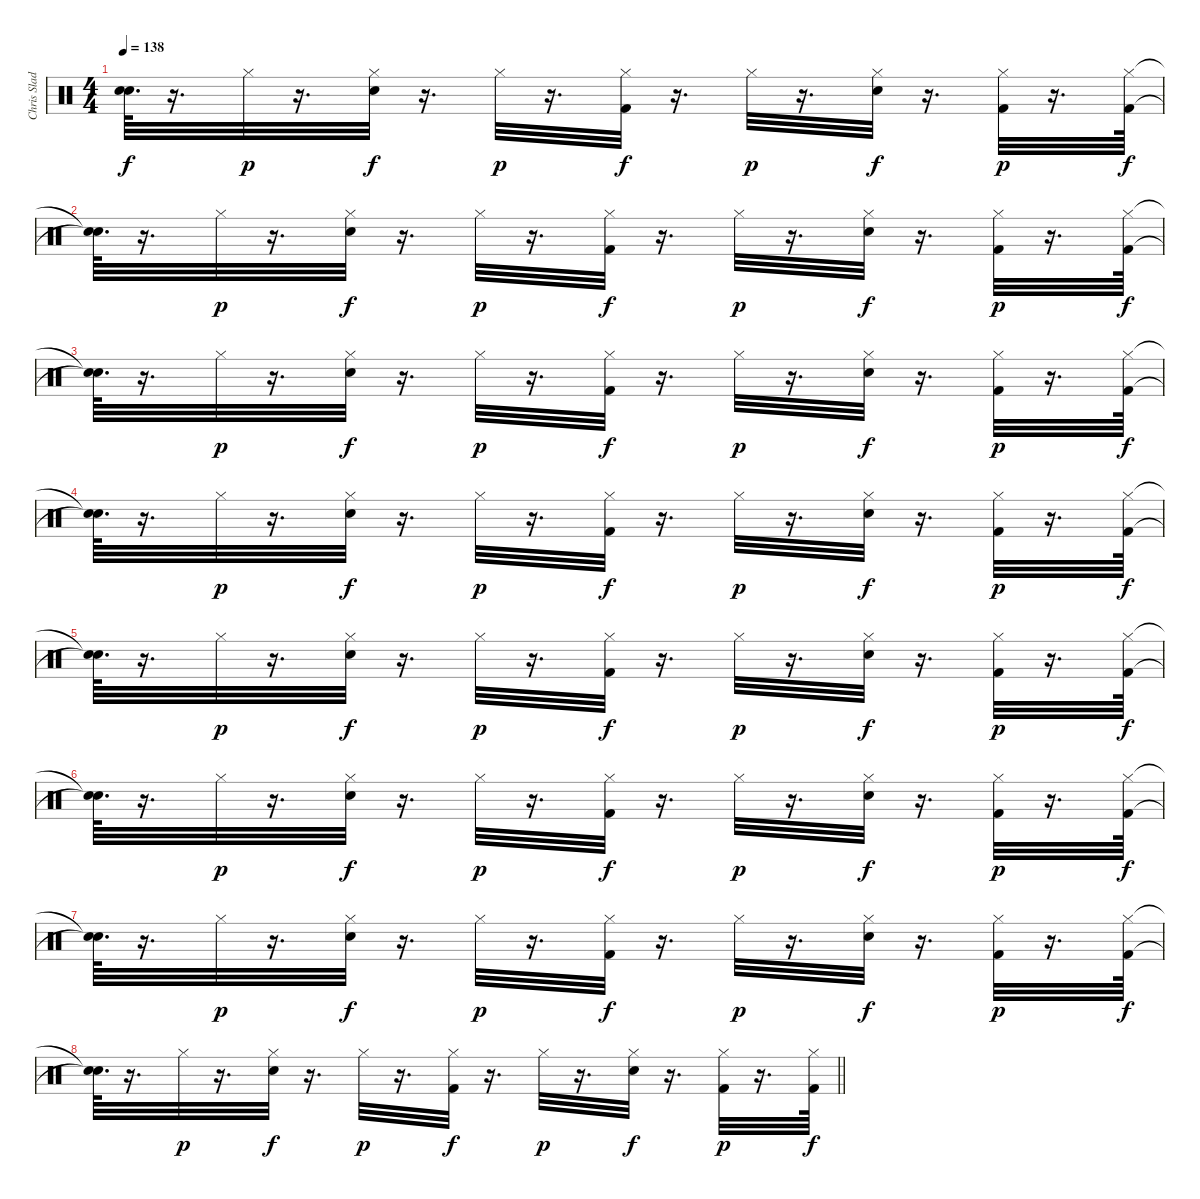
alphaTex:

\track ("Chris Slade" "Chris Slad") {instrument percussion}
\staff {score}
\articulation defaults
\ts (4 4)
\tempo 138
\clef neutral
\ks c
("Snare (hit)"{t} "Snare (hit)"{t}).64{d dy f} r.16{d} "Hi-Hat (closed)".32{dy p} r.16{d} ("Hi-Hat (closed)" "Electric Snare (hit)").32{dy f} r.16{d} "Hi-Hat (closed)".32{dy p} r.16{d} ("Hi-Hat (closed)" "Kick (hit) 2").32{dy f} r.16{d} "Hi-Hat (closed)".32{dy p} r.16{d} ("Hi-Hat (closed)" "Electric Snare (hit)").32{dy f} r.16{d} ("Hi-Hat (closed)" "Kick (hit) 2").32{dy p} r.16{d} ("Hi-Hat (closed)" "Kick (hit) 2").64{dy f} |
("Snare (hit)"{t} "Snare (hit)"{t}).64{d} r.16{d} "Hi-Hat (closed)".32{dy p} r.16{d} ("Hi-Hat (closed)" "Electric Snare (hit)").32{dy f} r.16{d} "Hi-Hat (closed)".32{dy p} r.16{d} ("Hi-Hat (closed)" "Kick (hit) 2").32{dy f} r.16{d} "Hi-Hat (closed)".32{dy p} r.16{d} ("Hi-Hat (closed)" "Electric Snare (hit)").32{dy f} r.16{d} ("Hi-Hat (closed)" "Kick (hit) 2").32{dy p} r.16{d} ("Hi-Hat (closed)" "Kick (hit) 2").64{dy f} |
("Snare (hit)"{t} "Snare (hit)"{t}).64{d} r.16{d} "Hi-Hat (closed)".32{dy p} r.16{d} ("Hi-Hat (closed)" "Electric Snare (hit)").32{dy f} r.16{d} "Hi-Hat (closed)".32{dy p} r.16{d} ("Hi-Hat (closed)" "Kick (hit) 2").32{dy f} r.16{d} "Hi-Hat (closed)".32{dy p} r.16{d} ("Hi-Hat (closed)" "Electric Snare (hit)").32{dy f} r.16{d} ("Hi-Hat (closed)" "Kick (hit) 2").32{dy p} r.16{d} ("Hi-Hat (closed)" "Kick (hit) 2").64{dy f} |
("Snare (hit)"{t} "Snare (hit)"{t}).64{d} r.16{d} "Hi-Hat (closed)".32{dy p} r.16{d} ("Hi-Hat (closed)" "Electric Snare (hit)").32{dy f} r.16{d} "Hi-Hat (closed)".32{dy p} r.16{d} ("Hi-Hat (closed)" "Kick (hit) 2").32{dy f} r.16{d} "Hi-Hat (closed)".32{dy p} r.16{d} ("Hi-Hat (closed)" "Electric Snare (hit)").32{dy f} r.16{d} ("Hi-Hat (closed)" "Kick (hit) 2").32{dy p} r.16{d} ("Hi-Hat (closed)" "Kick (hit) 2").64{dy f} |
("Snare (hit)"{t} "Snare (hit)"{t}).64{d} r.16{d} "Hi-Hat (closed)".32{dy p} r.16{d} ("Hi-Hat (closed)" "Electric Snare (hit)").32{dy f} r.16{d} "Hi-Hat (closed)".32{dy p} r.16{d} ("Hi-Hat (closed)" "Kick (hit) 2").32{dy f} r.16{d} "Hi-Hat (closed)".32{dy p} r.16{d} ("Hi-Hat (closed)" "Electric Snare (hit)").32{dy f} r.16{d} ("Hi-Hat (closed)" "Kick (hit) 2").32{dy p} r.16{d} ("Hi-Hat (closed)" "Kick (hit) 2").64{dy f} |
("Snare (hit)"{t} "Snare (hit)"{t}).64{d} r.16{d} "Hi-Hat (closed)".32{dy p} r.16{d} ("Hi-Hat (closed)" "Electric Snare (hit)").32{dy f} r.16{d} "Hi-Hat (closed)".32{dy p} r.16{d} ("Hi-Hat (closed)" "Kick (hit) 2").32{dy f} r.16{d} "Hi-Hat (closed)".32{dy p} r.16{d} ("Hi-Hat (closed)" "Electric Snare (hit)").32{dy f} r.16{d} ("Hi-Hat (closed)" "Kick (hit) 2").32{dy p} r.16{d} ("Hi-Hat (closed)" "Kick (hit) 2").64{dy f} |
("Snare (hit)"{t} "Snare (hit)"{t}).64{d} r.16{d} "Hi-Hat (closed)".32{dy p} r.16{d} ("Hi-Hat (closed)" "Electric Snare (hit)").32{dy f} r.16{d} "Hi-Hat (closed)".32{dy p} r.16{d} ("Hi-Hat (closed)" "Kick (hit) 2").32{dy f} r.16{d} "Hi-Hat (closed)".32{dy p} r.16{d} ("Hi-Hat (closed)" "Electric Snare (hit)").32{dy f} r.16{d} ("Hi-Hat (closed)" "Kick (hit) 2").32{dy p} r.16{d} ("Hi-Hat (closed)" "Kick (hit) 2").64{dy f} |
\barLineRight lightlight
("Snare (hit)"{t} "Snare (hit)"{t}).64{d} r.16{d} "Hi-Hat (closed)".32{dy p} r.16{d} ("Hi-Hat (closed)" "Electric Snare (hit)").32{dy f} r.16{d} "Hi-Hat (closed)".32{dy p} r.16{d} ("Hi-Hat (closed)" "Kick (hit) 2").32{dy f} r.16{d} "Hi-Hat (closed)".32{dy p} r.16{d} ("Hi-Hat (closed)" "Electric Snare (hit)").32{dy f} r.16{d} ("Hi-Hat (closed)" "Kick (hit) 2").32{dy p} r.16{d} ("Hi-Hat (closed)" "Kick (hit) 2").64{dy f}
